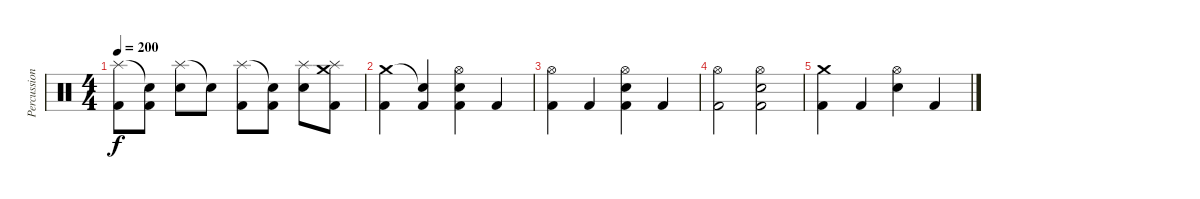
\track ("Percussion" "Percussion") {instrument percussion}
\staff {score}
\articulation defaults
\ts (4 4)
\tempo 200
\clef neutral
\ks c
("Splash (hit)" "Kick (hit) 2").8{dy f} ("Snare (hit)"{t} "Kick (hit) 2").8 ("Splash (hit)" "Electric Snare (hit)").8 "Snare (hit)"{t}.8 ("Splash (hit)" "Kick (hit) 2").8 ("Snare (hit)"{t} "Kick (hit) 2").8 ("Splash (hit)" "Electric Snare (hit)").8 ("Crash medium (hit)" "Splash (hit)" "Kick (hit) 2").8 |
("Crash medium (hit)" "Kick (hit) 2").4 ("Snare (hit)"{t} "Kick (hit) 2").4 ("Hi-Hat (open)" "Electric Snare (hit)" "Kick (hit) 2").4 "Kick (hit) 2".4 |
("Hi-Hat (open)" "Kick (hit) 2").4 "Kick (hit) 2".4 ("Hi-Hat (open)" "Electric Snare (hit)" "Kick (hit) 2").4 "Kick (hit) 2".4 |
("Hi-Hat (open)" "Kick (hit) 2").2 ("Hi-Hat (open)" "Electric Snare (hit)" "Kick (hit) 2").2 |
("Crash medium (hit)" "Kick (hit) 2").4 "Kick (hit) 2".4 ("Hi-Hat (open)" "Electric Snare (hit)").4 "Kick (hit) 2".4
